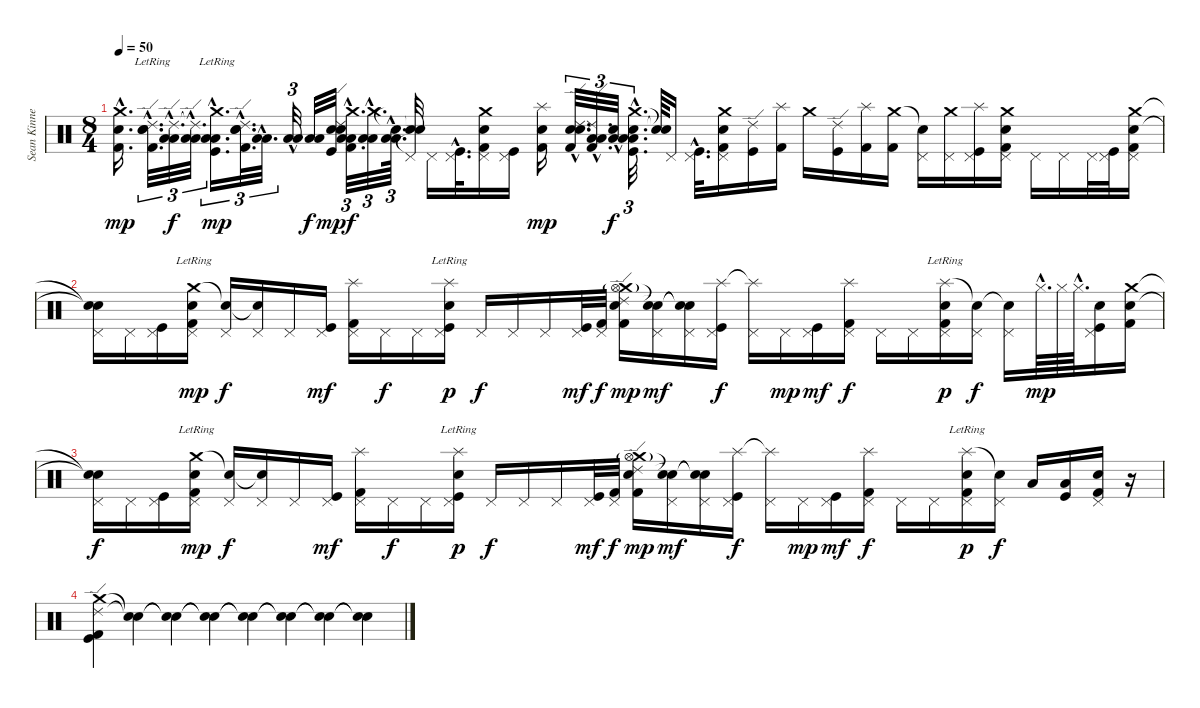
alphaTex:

\track ("Sean Kinney" "Sean Kinne") {instrument percussion}
\staff {score}
\articulation defaults
\ts (8 4)
\tempo 50
\clef neutral
\ks c
("Crash medium (hit)"{hac} "Snare (hit) 2"{hac} "Kick (hit) 2"{hac}).16{d dy mp} ("Ride (edge) 2"{hac lr} "Electric Snare (hit)"{hac} "Snare (hit) 2"{hac} "Kick (hit) 2"{hac}).32{d tu (3 2)} ("Ride (edge) 2"{hac} "Low Floor Tom (hit)"{hac} "Low Floor Tom (hit)"{hac}).32{d tu (3 2) dy f} ("Ride (edge) 2"{hac t} "Low Floor Tom (hit)"{hac} "Low Floor Tom (hit)"{hac}).32{d tu (3 2)} ("Crash medium (hit)"{hac lr} "Low Tom (hit)"{hac} "Low Tom (hit)"{hac} "Kick (hit)"{hac}).16{d tu (3 2) dy mp} ("Ride (edge) 2"{hac lr} "Electric Snare (hit)"{hac} "Snare (hit) 2"{hac} "Kick (hit) 2"{hac}).32{d tu (3 2)} ("Low Floor Tom (hit)"{hac} "Low Floor Tom (hit)"{hac}).32{d tu (3 2)} ("Low Floor Tom (hit)"{hac} "Low Floor Tom (hit)"{hac}).32{d tu (3 2)} ("Low Tom (hit)" "Low Tom (hit)").32{dy f} ("Ride (edge) 2" "Electric Snare (hit)" "Snare (hit) 2" "Kick (hit)").32{dy mp} ("Crash medium (hit)"{hac} "Low Floor Tom (hit)"{hac} "Low Floor Tom (hit)"{hac} "Kick (hit) 2"{hac}).32{d tu (3 2) dy f} ("Crash medium (hit)"{hac} "Low Floor Tom (hit)"{hac} "Low Floor Tom (hit)"{hac}).32{d tu (3 2)} ("Snare (hit)"{hac t} "Low Tom (hit)"{hac} "Low Tom (hit)"{hac}).64{d tu (3 2)} ("Snare (hit)"{t} "Snare (hit)"{t} "Pedal Hi-Hat (hit)"{t}).32 "Pedal Hi-Hat (hit)".16 ("Pedal Hi-Hat (hit)"{hac} "Kick (hit)"{hac}).32{d} ("Crash medium (hit)" "Snare (hit) 2" "Pedal Hi-Hat (hit)" "Kick (hit) 2").16 ("Pedal Hi-Hat (hit)" "Kick (hit)").16 ("Splash (hit)" "Snare (hit) 2" "Kick (hit) 2").16{dy mp} ("Ride (edge) 2"{hac} "Electric Snare (hit)"{hac} "Snare (hit) 2"{hac} "Kick (hit) 2"{hac}).32{d tu (3 2)} ("Ride (edge) 2"{hac} "Low Floor Tom (hit)"{hac} "Low Floor Tom (hit)"{hac} "Kick (hit) 2"{hac}).32{d tu (3 2)} ("Snare (hit)"{hac t} "Low Floor Tom (hit)"{hac} "Low Floor Tom (hit)"{hac}).32{d tu (3 2) dy f} ("Crash medium (hit)"{hac} "Snare (hit) 2"{hac} "Low Tom (hit)"{hac} "Kick (hit)"{hac}).32{d tu (3 2)} ("Snare (hit)"{t} "Snare (hit)"{t}).64 "Pedal Hi-Hat (hit)".16 ("Pedal Hi-Hat (hit)"{hac} "Kick (hit)"{hac}).32{d} ("Crash medium (hit)" "Snare (hit) 2" "Pedal Hi-Hat (hit)" "Kick (hit) 2").16 ("Ride (edge) 2" "Kick (hit)").16 ("Splash (hit)" "Kick (hit) 2").16 "Crash medium (hit)".16 ("Ride (edge) 2" "Kick (hit)").16 ("Splash (hit)" "Kick (hit) 2").16 ("Crash medium (hit)" "Kick (hit) 2").16 ("Snare (hit)"{t} "Pedal Hi-Hat (hit)").16 ("Crash medium (hit)" "Pedal Hi-Hat (hit)").16 ("Splash (hit)" "Pedal Hi-Hat (hit)" "Kick (hit)").16 ("Crash medium (hit)" "Snare (hit) 2" "Pedal Hi-Hat (hit)" "Kick (hit) 2").16 "Pedal Hi-Hat (hit)".16 "Pedal Hi-Hat (hit)".16 "Pedal Hi-Hat (hit)".32 ("Pedal Hi-Hat (hit)" "Kick (hit)").32 ("Crash medium (hit)" "Snare (hit) 2" "Pedal Hi-Hat (hit)" "Kick (hit) 2").16 |
("Snare (hit)"{t} "Snare (hit)"{t} "Pedal Hi-Hat (hit)").16 "Pedal Hi-Hat (hit)".16 ("Pedal Hi-Hat (hit)" "Kick (hit)").16 ("Crash medium (hit)"{lr} "Snare (hit) 2" "Pedal Hi-Hat (hit)" "Kick (hit) 2").16{dy mp} ("Snare (hit)"{t} "Pedal Hi-Hat (hit)").16{dy f} ("Snare (hit)"{t} "Pedal Hi-Hat (hit)").16 "Pedal Hi-Hat (hit)".16 ("Pedal Hi-Hat (hit)" "Kick (hit)").16{dy mf} ("Splash (hit)" "Pedal Hi-Hat (hit)" "Kick (hit) 2").16 "Pedal Hi-Hat (hit)".16{dy f} "Pedal Hi-Hat (hit)".16 ("Splash (hit)"{lr} "Snare (hit) 2" "Pedal Hi-Hat (hit)" "Kick (hit)").16{dy p} "Pedal Hi-Hat (hit)".16{dy f} "Pedal Hi-Hat (hit)".16 "Pedal Hi-Hat (hit)".16 ("Pedal Hi-Hat (hit)" "Kick (hit)").32{dy mf} ("Pedal Hi-Hat (hit)" "Kick (hit) 2").32{dy f} ("Crash medium (hit)" "Ride (edge) 2" "Snare (hit) 2" "Hi-Hat (open)"{g} "Kick (hit) 2").16{dy mp} ("Snare (hit)"{t} "Snare (hit)"{t} "Pedal Hi-Hat (hit)").16{dy mf} ("Snare (hit)"{t} "Snare (hit)"{t} "Pedal Hi-Hat (hit)").16 ("Splash (hit)" "Pedal Hi-Hat (hit)" "Kick (hit)").16{dy f} ("Splash (hit)"{t} "Pedal Hi-Hat (hit)").16 "Pedal Hi-Hat (hit)".16{dy mp} ("Pedal Hi-Hat (hit)" "Kick (hit)").16{dy mf} ("Splash (hit)" "Pedal Hi-Hat (hit)" "Kick (hit) 2").16{dy f} "Pedal Hi-Hat (hit)".16 "Pedal Hi-Hat (hit)".16 ("Splash (hit)"{lr} "Snare (hit) 2" "Pedal Hi-Hat (hit)" "Kick (hit) 2").16{dy p} ("Snare (hit)"{t} "Pedal Hi-Hat (hit)").16{dy f} ("Snare (hit)"{t} "Pedal Hi-Hat (hit)").16 "Hi-Hat (closed)"{hac}.64{d dy mp} "Hi-Hat (closed)".64 "Hi-Hat (closed)"{hac}.64{d} ("Snare (hit) 2" "Pedal Hi-Hat (hit)" "Kick (hit)").16 ("Crash medium (hit)" "Snare (hit) 2" "Kick (hit) 2").16 |
("Snare (hit)"{t} "Snare (hit)"{t} "Pedal Hi-Hat (hit)").16{dy f} "Pedal Hi-Hat (hit)".16 ("Pedal Hi-Hat (hit)" "Kick (hit)").16 ("Crash medium (hit)"{lr} "Snare (hit) 2" "Pedal Hi-Hat (hit)" "Kick (hit) 2").16{dy mp} ("Snare (hit)"{t} "Pedal Hi-Hat (hit)").16{dy f} ("Snare (hit)"{t} "Pedal Hi-Hat (hit)").16 "Pedal Hi-Hat (hit)".16 ("Pedal Hi-Hat (hit)" "Kick (hit)").16{dy mf} ("Splash (hit)" "Pedal Hi-Hat (hit)" "Kick (hit) 2").16 "Pedal Hi-Hat (hit)".16{dy f} "Pedal Hi-Hat (hit)".16 ("Splash (hit)"{lr} "Snare (hit) 2" "Pedal Hi-Hat (hit)" "Kick (hit)").16{dy p} "Pedal Hi-Hat (hit)".16{dy f} "Pedal Hi-Hat (hit)".16 "Pedal Hi-Hat (hit)".16 ("Pedal Hi-Hat (hit)" "Kick (hit)").32{dy mf} ("Pedal Hi-Hat (hit)" "Kick (hit) 2").32{dy f} ("Crash medium (hit)" "Ride (edge) 2" "Snare (hit) 2" "Hi-Hat (open)"{g} "Kick (hit) 2").16{dy mp} ("Snare (hit)"{t} "Snare (hit)"{t} "Pedal Hi-Hat (hit)").16{dy mf} ("Snare (hit)"{t} "Snare (hit)"{t} "Pedal Hi-Hat (hit)").16 ("Splash (hit)" "Pedal Hi-Hat (hit)" "Kick (hit)").16{dy f} ("Splash (hit)"{t} "Pedal Hi-Hat (hit)").16 "Pedal Hi-Hat (hit)".16{dy mp} ("Pedal Hi-Hat (hit)" "Kick (hit)").16{dy mf} ("Splash (hit)" "Pedal Hi-Hat (hit)" "Kick (hit) 2").16{dy f} "Pedal Hi-Hat (hit)".16 "Pedal Hi-Hat (hit)".16 ("Splash (hit)"{lr} "Snare (hit) 2" "Pedal Hi-Hat (hit)" "Kick (hit) 2").16{dy p} ("Snare (hit)"{t} "Pedal Hi-Hat (hit)").16{dy f} "Low Tom (hit)".16 ("Low Floor Tom (hit)" "Kick (hit)").16 ("Snare (hit) 2" "Pedal Hi-Hat (hit)" "Kick (hit) 2").16 r.16 |
("Ride (edge) 2" "Crash medium (hit)" "Kick (hit) 2" "Kick (hit)").4 ("Snare (hit)"{t} "Snare (hit)"{t}).4 ("Snare (hit)"{t} "Snare (hit)"{t}).4 ("Snare (hit)"{t} "Snare (hit)"{t}).4 ("Snare (hit)"{t} "Snare (hit)"{t}).4 ("Snare (hit)"{t} "Snare (hit)"{t}).4 ("Snare (hit)"{t} "Snare (hit)"{t}).4 ("Snare (hit)"{t} "Snare (hit)"{t}).4
